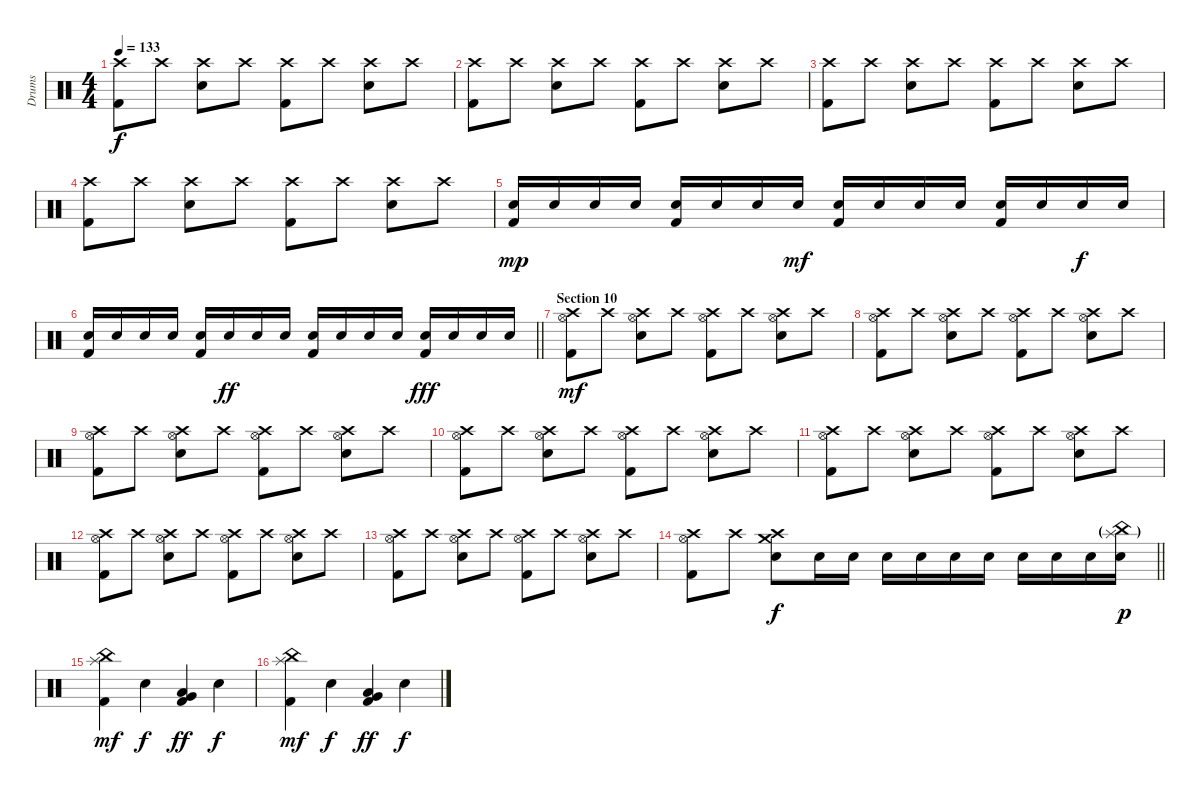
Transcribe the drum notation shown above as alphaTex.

\track ("Drums" "Drums") {instrument percussion}
\staff {score}
\articulation defaults
\ts (4 4)
\tempo 133
\clef neutral
\ks c
("Crash high (hit)" "Kick (hit) 2").8{dy f} "Crash high (hit)".8 ("Crash high (hit)" "Electric Snare (hit)").8 "Crash high (hit)".8 ("Crash high (hit)" "Kick (hit) 2").8 "Crash high (hit)".8 ("Crash high (hit)" "Electric Snare (hit)").8 "Crash high (hit)".8 |
("Crash high (hit)" "Kick (hit) 2").8 "Crash high (hit)".8 ("Crash high (hit)" "Electric Snare (hit)").8 "Crash high (hit)".8 ("Crash high (hit)" "Kick (hit) 2").8 "Crash high (hit)".8 ("Crash high (hit)" "Electric Snare (hit)").8 "Crash high (hit)".8 |
("Crash high (hit)" "Kick (hit) 2").8 "Crash high (hit)".8 ("Crash high (hit)" "Electric Snare (hit)").8 "Crash high (hit)".8 ("Crash high (hit)" "Kick (hit) 2").8 "Crash high (hit)".8 ("Crash high (hit)" "Electric Snare (hit)").8 "Crash high (hit)".8 |
("Crash high (hit)" "Kick (hit) 2").8 "Crash high (hit)".8 ("Crash high (hit)" "Electric Snare (hit)").8 "Crash high (hit)".8 ("Crash high (hit)" "Kick (hit) 2").8 "Crash high (hit)".8 ("Crash high (hit)" "Electric Snare (hit)").8 "Crash high (hit)".8 |
("Electric Snare (hit)" "Kick (hit) 2").16{dy mp} "Electric Snare (hit)".16 "Electric Snare (hit)".16 "Electric Snare (hit)".16 ("Electric Snare (hit)" "Kick (hit) 2").16 "Electric Snare (hit)".16 "Electric Snare (hit)".16 "Electric Snare (hit)".16{dy mf} ("Electric Snare (hit)" "Kick (hit) 2").16 "Electric Snare (hit)".16 "Electric Snare (hit)".16 "Electric Snare (hit)".16 ("Electric Snare (hit)" "Kick (hit) 2").16 "Electric Snare (hit)".16 "Electric Snare (hit)".16{dy f} "Electric Snare (hit)".16 |
\barLineRight lightlight
("Electric Snare (hit)" "Kick (hit) 2").16 "Electric Snare (hit)".16 "Electric Snare (hit)".16 "Electric Snare (hit)".16 ("Electric Snare (hit)" "Kick (hit) 2").16 "Electric Snare (hit)".16{dy ff} "Electric Snare (hit)".16 "Electric Snare (hit)".16 ("Electric Snare (hit)" "Kick (hit) 2").16 "Electric Snare (hit)".16 "Electric Snare (hit)".16 "Electric Snare (hit)".16 ("Electric Snare (hit)" "Kick (hit) 2").16{dy fff} "Electric Snare (hit)".16 "Electric Snare (hit)".16 "Electric Snare (hit)".16 |
\section ("" "Section 10")
("Crash high (hit)" "Hi-Hat (open)" "Kick (hit) 2").8{dy mf} "Crash high (hit)".8 ("Crash high (hit)" "Hi-Hat (open)" "Electric Snare (hit)").8 "Crash high (hit)".8 ("Crash high (hit)" "Hi-Hat (open)" "Kick (hit) 2").8 "Crash high (hit)".8 ("Crash high (hit)" "Hi-Hat (open)" "Electric Snare (hit)").8 "Crash high (hit)".8 |
("Crash high (hit)" "Hi-Hat (open)" "Kick (hit) 2").8 "Crash high (hit)".8 ("Crash high (hit)" "Hi-Hat (open)" "Electric Snare (hit)").8 "Crash high (hit)".8 ("Crash high (hit)" "Hi-Hat (open)" "Kick (hit) 2").8 "Crash high (hit)".8 ("Crash high (hit)" "Hi-Hat (open)" "Electric Snare (hit)").8 "Crash high (hit)".8 |
("Crash high (hit)" "Hi-Hat (open)" "Kick (hit) 2").8 "Crash high (hit)".8 ("Crash high (hit)" "Hi-Hat (open)" "Electric Snare (hit)").8 "Crash high (hit)".8 ("Crash high (hit)" "Hi-Hat (open)" "Kick (hit) 2").8 "Crash high (hit)".8 ("Crash high (hit)" "Hi-Hat (open)" "Electric Snare (hit)").8 "Crash high (hit)".8 |
("Crash high (hit)" "Hi-Hat (open)" "Kick (hit) 2").8 "Crash high (hit)".8 ("Crash high (hit)" "Hi-Hat (open)" "Electric Snare (hit)").8 "Crash high (hit)".8 ("Crash high (hit)" "Hi-Hat (open)" "Kick (hit) 2").8 "Crash high (hit)".8 ("Crash high (hit)" "Hi-Hat (open)" "Electric Snare (hit)").8 "Crash high (hit)".8 |
("Crash high (hit)" "Hi-Hat (open)" "Kick (hit) 2").8 "Crash high (hit)".8 ("Crash high (hit)" "Hi-Hat (open)" "Electric Snare (hit)").8 "Crash high (hit)".8 ("Crash high (hit)" "Hi-Hat (open)" "Kick (hit) 2").8 "Crash high (hit)".8 ("Crash high (hit)" "Hi-Hat (open)" "Electric Snare (hit)").8 "Crash high (hit)".8 |
("Crash high (hit)" "Hi-Hat (open)" "Kick (hit) 2").8 "Crash high (hit)".8 ("Crash high (hit)" "Hi-Hat (open)" "Electric Snare (hit)").8 "Crash high (hit)".8 ("Crash high (hit)" "Hi-Hat (open)" "Kick (hit) 2").8 "Crash high (hit)".8 ("Crash high (hit)" "Hi-Hat (open)" "Electric Snare (hit)").8 "Crash high (hit)".8 |
("Crash high (hit)" "Hi-Hat (open)" "Kick (hit) 2").8 "Crash high (hit)".8 ("Crash high (hit)" "Hi-Hat (open)" "Electric Snare (hit)").8 "Crash high (hit)".8 ("Crash high (hit)" "Hi-Hat (open)" "Kick (hit) 2").8 "Crash high (hit)".8 ("Crash high (hit)" "Hi-Hat (open)" "Electric Snare (hit)").8 "Crash high (hit)".8 |
\barLineRight lightlight
("Crash high (hit)" "Hi-Hat (open)" "Kick (hit) 2").8 "Crash high (hit)".8 ("Crash high (hit)" "Crash medium (hit)" "Electric Snare (hit)").8{dy f} "Electric Snare (hit)".16 "Electric Snare (hit)".16 "Electric Snare (hit)".16 "Electric Snare (hit)".16 "Electric Snare (hit)".16 "Electric Snare (hit)".16 "Electric Snare (hit)".16 "Electric Snare (hit)".16 "Electric Snare (hit)".16 ("Splash (hit)"{g} "China (hit)"{g} "Electric Snare (hit)").16{dy p} |
("Splash (hit)" "China (hit)" "Kick (hit) 2").4{dy mf} "Electric Snare (hit)".4{dy f} ("Very Low Tom (hit)" "Low Floor Tom (hit)" "Kick (hit) 2").4{dy ff} "Electric Snare (hit)".4{dy f} |
("Splash (hit)" "China (hit)" "Kick (hit) 2").4{dy mf} "Electric Snare (hit)".4{dy f} ("Very Low Tom (hit)" "Low Floor Tom (hit)" "Kick (hit) 2").4{dy ff} "Electric Snare (hit)".4{dy f}
